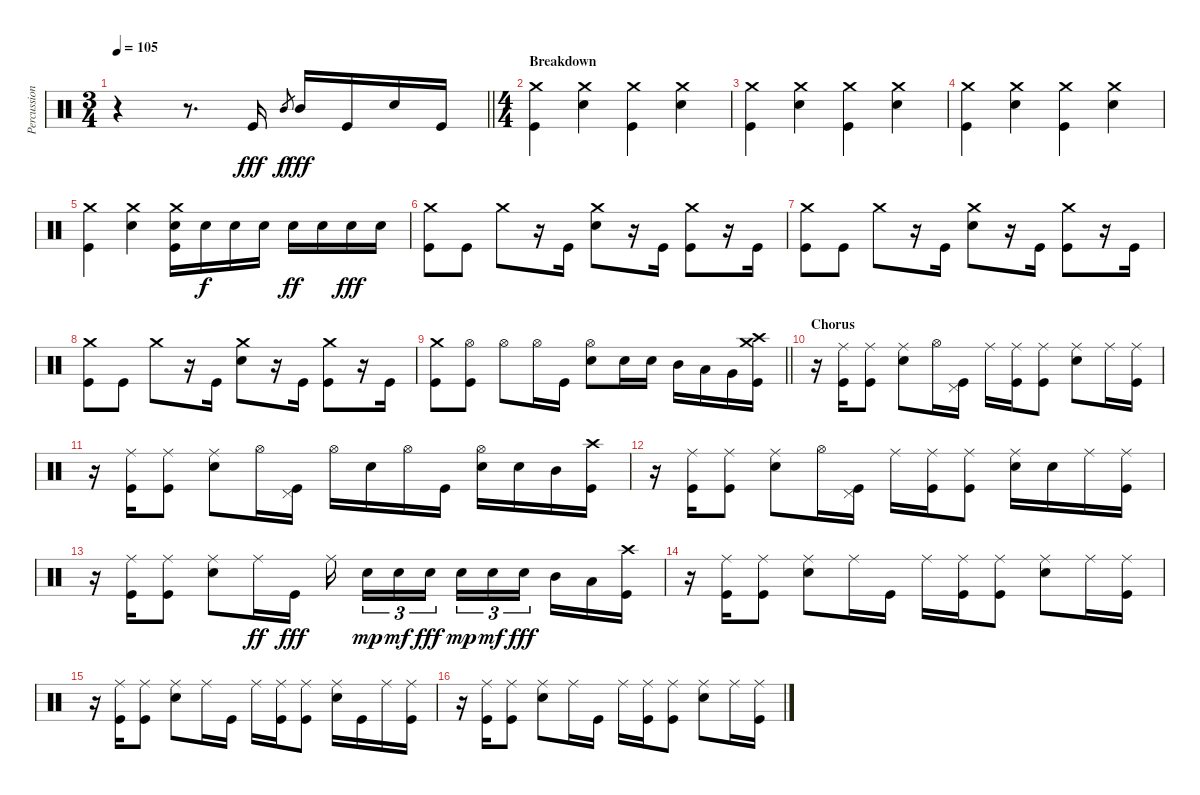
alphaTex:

\track ("Percussion" "Percussion") {instrument percussion}
\staff {score}
\articulation defaults
\ts (3 4)
\tempo 105
\clef neutral
\barLineRight lightlight
\ks c
r.4{dy fff} r.8{d} "Kick (hit)".16 "Mid Tom (hit)".8{gr dy f} "Mid Tom (hit)".16{dy fff} "Kick (hit)".16 "Electric Snare (hit)".16 "Kick (hit)".16 |
\ts (4 4)
\section ("" "Breakdown")
("Crash medium (hit)" "Kick (hit)").4 ("Crash medium (hit)" "Electric Snare (hit)").4 ("Crash medium (hit)" "Kick (hit)").4 ("Crash medium (hit)" "Electric Snare (hit)").4 |
("Crash medium (hit)" "Kick (hit)").4 ("Crash medium (hit)" "Electric Snare (hit)").4 ("Crash medium (hit)" "Kick (hit)").4 ("Crash medium (hit)" "Electric Snare (hit)").4 |
("Crash medium (hit)" "Kick (hit)").4 ("Crash medium (hit)" "Electric Snare (hit)").4 ("Crash medium (hit)" "Kick (hit)").4 ("Crash medium (hit)" "Electric Snare (hit)").4 |
("Crash medium (hit)" "Kick (hit)").4 ("Crash medium (hit)" "Electric Snare (hit)").4 ("Crash medium (hit)" "Electric Snare (hit)" "Kick (hit)").16 "Electric Snare (hit)".16{dy f} "Electric Snare (hit)".16 "Electric Snare (hit)".16 "Electric Snare (hit)".16{dy ff} "Electric Snare (hit)".16 "Electric Snare (hit)".16{dy fff} "Electric Snare (hit)".16 |
("Crash medium (hit)" "Kick (hit)").8 "Kick (hit)".8 "Crash medium (hit)".8 r.16 "Kick (hit)".16 ("Crash medium (hit)" "Electric Snare (hit)").8 r.16 "Kick (hit)".16 ("Crash medium (hit)" "Kick (hit)").8 r.16 "Kick (hit)".16 |
("Crash medium (hit)" "Kick (hit)").8 "Kick (hit)".8 "Crash medium (hit)".8 r.16 "Kick (hit)".16 ("Crash medium (hit)" "Electric Snare (hit)").8 r.16 "Kick (hit)".16 ("Crash medium (hit)" "Kick (hit)").8 r.16 "Kick (hit)".16 |
("Crash medium (hit)" "Kick (hit)").8 "Kick (hit)".8 "Crash medium (hit)".8 r.16 "Kick (hit)".16 ("Crash medium (hit)" "Electric Snare (hit)").8 r.16 "Kick (hit)".16 ("Crash medium (hit)" "Kick (hit)").8 r.16 "Kick (hit)".16 |
\barLineRight lightlight
("Crash medium (hit)" "Kick (hit)").8 ("Hi-Hat (open)" "Kick (hit)").8 "Hi-Hat (open)".8 "Hi-Hat (open)".16 "Kick (hit)".16 ("Hi-Hat (open)" "Electric Snare (hit)").8 "Electric Snare (hit)".16 "Electric Snare (hit)".16 "Mid Tom (hit)".16 "Low Tom (hit)".16 "Very Low Tom (hit)".16 ("Crash high (hit)" "Crash medium (hit)" "Kick (hit)").16 |
\section ("" "Chorus")
r.16 ("Ride (middle)" "Kick (hit)").16 ("Ride (middle)" "Kick (hit)").8 ("Ride (middle)" "Electric Snare (hit)").8 "Hi-Hat (open)".16 ("Pedal Hi-Hat (hit)" "Kick (hit)").16 "Ride (middle)".16 ("Ride (middle)" "Kick (hit)").16 ("Ride (middle)" "Kick (hit)").8 ("Ride (middle)" "Electric Snare (hit)").8 "Ride (middle)".16 ("Ride (middle)" "Kick (hit)").16 |
r.16 ("Ride (middle)" "Kick (hit)").16 ("Ride (middle)" "Kick (hit)").8 ("Ride (middle)" "Electric Snare (hit)").8 "Hi-Hat (open)".16 ("Pedal Hi-Hat (hit)" "Kick (hit)").16 "Hi-Hat (open)".16 "Electric Snare (hit)".16 "Hi-Hat (open)".16 "Kick (hit)".16 ("Hi-Hat (open)" "Electric Snare (hit)").16 "Electric Snare (hit)".16 "Mid Tom (hit)".16 ("Crash high (hit)" "Kick (hit)").16 |
r.16 ("Ride (middle)" "Kick (hit)").16 ("Ride (middle)" "Kick (hit)").8 ("Ride (middle)" "Electric Snare (hit)").8 "Hi-Hat (open)".16 ("Pedal Hi-Hat (hit)" "Kick (hit)").16 "Ride (middle)".16 ("Ride (middle)" "Kick (hit)").16 ("Ride (middle)" "Kick (hit)").8 ("Ride (middle)" "Electric Snare (hit)").16 "Electric Snare (hit)".16 "Ride (middle)".16 ("Ride (middle)" "Kick (hit)").16 |
r.16 ("Ride (middle)" "Kick (hit)").16 ("Ride (middle)" "Kick (hit)").8 ("Ride (middle)" "Electric Snare (hit)").8 "Ride (middle)".16{dy ff} "Kick (hit)".16{dy fff} "Ride (middle)".16{beam splitsecondary} "Electric Snare (hit)".16{tu (3 2) dy mp} "Electric Snare (hit)".16{tu (3 2) dy mf} "Electric Snare (hit)".16{tu (3 2) dy fff beam splitsecondary} "Electric Snare (hit)".16{tu (3 2) dy mp} "Electric Snare (hit)".16{tu (3 2) dy mf} "Electric Snare (hit)".16{tu (3 2) dy fff beam splitsecondary} "Mid Tom (hit)".16 "Low Tom (hit)".16 ("Crash high (hit)" "Kick (hit)").16 |
r.16 ("Ride (middle)" "Kick (hit)").16 ("Ride (middle)" "Kick (hit)").8 ("Ride (middle)" "Electric Snare (hit)").8 "Ride (middle)".16 "Kick (hit)".16 "Ride (middle)".16 ("Ride (middle)" "Kick (hit)").16 ("Ride (middle)" "Kick (hit)").8 ("Ride (middle)" "Electric Snare (hit)").8 "Ride (middle)".16 ("Ride (middle)" "Kick (hit)").16 |
r.16 ("Ride (middle)" "Kick (hit)").16 ("Ride (middle)" "Kick (hit)").8 ("Ride (middle)" "Electric Snare (hit)").8 "Ride (middle)".16 "Kick (hit)".16 "Ride (middle)".16 ("Ride (middle)" "Kick (hit)").16 ("Ride (middle)" "Kick (hit)").8 ("Ride (middle)" "Electric Snare (hit)").16 "Kick (hit)".16 "Ride (middle)".16 ("Ride (middle)" "Kick (hit)").16 |
r.16 ("Ride (middle)" "Kick (hit)").16 ("Ride (middle)" "Kick (hit)").8 ("Ride (middle)" "Electric Snare (hit)").8 "Ride (middle)".16 "Kick (hit)".16 "Ride (middle)".16 ("Ride (middle)" "Kick (hit)").16 ("Ride (middle)" "Kick (hit)").8 ("Ride (middle)" "Electric Snare (hit)").8 "Ride (middle)".16 ("Ride (middle)" "Kick (hit)").16
